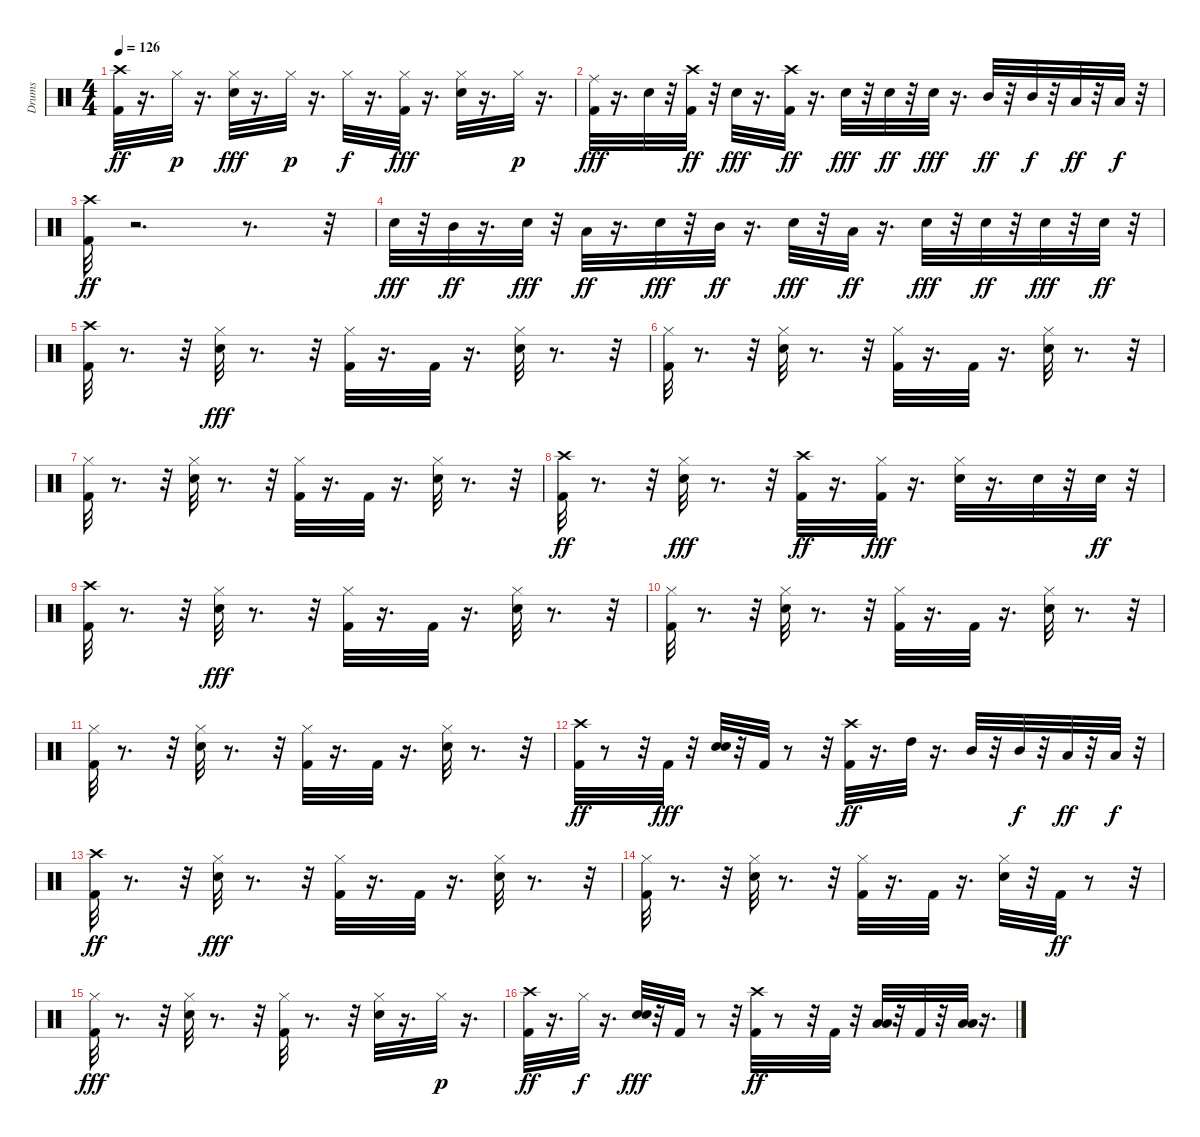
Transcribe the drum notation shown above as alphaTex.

\track ("Drums                               " "Drums     ") {instrument percussion}
\staff {score}
\articulation defaults
\ts (4 4)
\tempo 126
\clef neutral
\ks c
("Kick (hit) 2" "Crash high (hit)").32{dy ff} r.16{d} "Hi-Hat (closed)".32{dy p} r.16{d} ("Snare (hit) 2" "Hi-Hat (closed)").32{dy fff} r.16{d} "Hi-Hat (closed)".32{dy p} r.16{d} "Hi-Hat (closed)".32{dy f} r.16{d} ("Hi-Hat (closed)" "Kick (hit) 2").32{dy fff} r.16{d} ("Snare (hit) 2" "Hi-Hat (closed)").32 r.16{d} "Hi-Hat (closed)".32{dy p} r.16{d} |
("Kick (hit) 2" "Ride (middle)").32{dy fff} r.16{d} "Snare (hit) 2".32 r.32 ("Kick (hit) 2" "Crash high (hit)").32{dy ff} r.32 "Snare (hit) 2".32{dy fff} r.16{d} ("Kick (hit) 2" "Crash high (hit)").32{dy ff} r.16{d} "Snare (hit) 2".32{dy fff} r.32 "Snare (hit) 2".32{dy ff} r.32 "Snare (hit) 2".32{dy fff} r.16{d} "Mid Tom (hit)".32{dy ff} r.32 "Mid Tom (hit)".32{dy f} r.32 "Low Tom (hit)".32{dy ff} r.32 "Low Tom (hit)".32{dy f} r.32 |
("Kick (hit) 2" "Crash high (hit)").32{dy ff} r.2{d} r.8{d} r.32 |
"Snare (hit) 2".32{dy fff} r.32 "Mid Tom (hit)".32{dy ff} r.16{d} "Snare (hit) 2".32{dy fff} r.32 "Low Tom (hit)".32{dy ff} r.16{d} "Snare (hit) 2".32{dy fff} r.32 "Mid Tom (hit)".32{dy ff} r.16{d} "Snare (hit) 2".32{dy fff} r.32 "Low Tom (hit)".32{dy ff} r.16{d} "Snare (hit) 2".32{dy fff} r.32 "Snare (hit) 2".32{dy ff} r.32 "Snare (hit) 2".32{dy fff} r.32 "Snare (hit) 2".32{dy ff} r.32 |
("Kick (hit) 2" "Crash high (hit)").32 r.8{d} r.32 ("Snare (hit) 2" "Hi-Hat (closed)").32{dy fff} r.8{d} r.32 ("Kick (hit) 2" "Hi-Hat (closed)").32 r.16{d} "Kick (hit) 2".32 r.16{d} ("Snare (hit) 2" "Hi-Hat (closed)").32 r.8{d} r.32 |
("Kick (hit) 2" "Hi-Hat (closed)").32 r.8{d} r.32 ("Snare (hit) 2" "Hi-Hat (closed)").32 r.8{d} r.32 ("Kick (hit) 2" "Hi-Hat (closed)").32 r.16{d} "Kick (hit) 2".32 r.16{d} ("Snare (hit) 2" "Hi-Hat (closed)").32 r.8{d} r.32 |
("Kick (hit) 2" "Hi-Hat (closed)").32 r.8{d} r.32 ("Snare (hit) 2" "Hi-Hat (closed)").32 r.8{d} r.32 ("Kick (hit) 2" "Hi-Hat (closed)").32 r.16{d} "Kick (hit) 2".32 r.16{d} ("Snare (hit) 2" "Hi-Hat (closed)").32 r.8{d} r.32 |
("Kick (hit) 2" "Crash high (hit)").32{dy ff} r.8{d} r.32 ("Snare (hit) 2" "Hi-Hat (closed)").32{dy fff} r.8{d} r.32 ("Kick (hit) 2" "Crash high (hit)").32{dy ff} r.16{d} ("Kick (hit) 2" "Hi-Hat (closed)").32{dy fff} r.16{d} ("Snare (hit) 2" "Hi-Hat (closed)").32 r.16{d} "Snare (hit) 2".32 r.32 "Snare (hit) 2".32{dy ff} r.32 |
("Kick (hit) 2" "Crash high (hit)").32 r.8{d} r.32 ("Snare (hit) 2" "Hi-Hat (closed)").32{dy fff} r.8{d} r.32 ("Kick (hit) 2" "Hi-Hat (closed)").32 r.16{d} "Kick (hit) 2".32 r.16{d} ("Snare (hit) 2" "Hi-Hat (closed)").32 r.8{d} r.32 |
("Kick (hit) 2" "Hi-Hat (closed)").32 r.8{d} r.32 ("Snare (hit) 2" "Hi-Hat (closed)").32 r.8{d} r.32 ("Kick (hit) 2" "Hi-Hat (closed)").32 r.16{d} "Kick (hit) 2".32 r.16{d} ("Snare (hit) 2" "Hi-Hat (closed)").32 r.8{d} r.32 |
("Kick (hit) 2" "Hi-Hat (closed)").32 r.8{d} r.32 ("Snare (hit) 2" "Hi-Hat (closed)").32 r.8{d} r.32 ("Kick (hit) 2" "Hi-Hat (closed)").32 r.16{d} "Kick (hit) 2".32 r.16{d} ("Snare (hit) 2" "Hi-Hat (closed)").32 r.8{d} r.32 |
("Kick (hit) 2" "Crash high (hit)").32{dy ff} r.8 r.32 "Kick (hit) 2".32{dy fff} r.32 ("Snare (hit) 2" "Snare (hit) 2").32 r.32 "Kick (hit) 2".32 r.8 r.32 ("Kick (hit) 2" "Crash high (hit)").32{dy ff} r.16{d} "High Tom (hit)".32 r.16{d} "Mid Tom (hit)".32 r.32 "Mid Tom (hit)".32{dy f} r.32 "Low Tom (hit)".32{dy ff} r.32 "Low Tom (hit)".32{dy f} r.32 |
("Kick (hit) 2" "Crash high (hit)").32{dy ff} r.8{d} r.32 ("Snare (hit) 2" "Hi-Hat (closed)").32{dy fff} r.8{d} r.32 ("Kick (hit) 2" "Hi-Hat (closed)").32 r.16{d} "Kick (hit) 2".32 r.16{d} ("Snare (hit) 2" "Hi-Hat (closed)").32 r.8{d} r.32 |
("Kick (hit) 2" "Hi-Hat (closed)").32 r.8{d} r.32 ("Snare (hit) 2" "Hi-Hat (closed)").32 r.8{d} r.32 ("Kick (hit) 2" "Hi-Hat (closed)").32 r.16{d} "Kick (hit) 2".32 r.16{d} ("Snare (hit) 2" "Hi-Hat (closed)").32 r.32 "Kick (hit) 2".32{dy ff} r.8 r.32 |
("Kick (hit) 2" "Hi-Hat (closed)").32{dy fff} r.8{d} r.32 ("Snare (hit) 2" "Hi-Hat (closed)").32 r.8{d} r.32 ("Kick (hit) 2" "Hi-Hat (closed)").32 r.8{d} r.32 ("Snare (hit) 2" "Hi-Hat (closed)").32 r.16{d} "Hi-Hat (closed)".32{dy p} r.16{d} |
("Kick (hit) 2" "Crash high (hit)").32{dy ff} r.16{d} "Hi-Hat (closed)".32{dy f} r.16{d} ("Snare (hit) 2" "Snare (hit) 2").32{dy fff} r.32 "Kick (hit) 2".32 r.8 r.32 ("Kick (hit) 2" "Crash high (hit)").32{dy ff} r.8 r.32 "Kick (hit) 2".32 r.32 ("Low Tom (hit)" "Low Tom (hit)").32 r.32 "Kick (hit) 2".32 r.32 ("Low Tom (hit)" "Low Tom (hit)").32 r.16{d}
